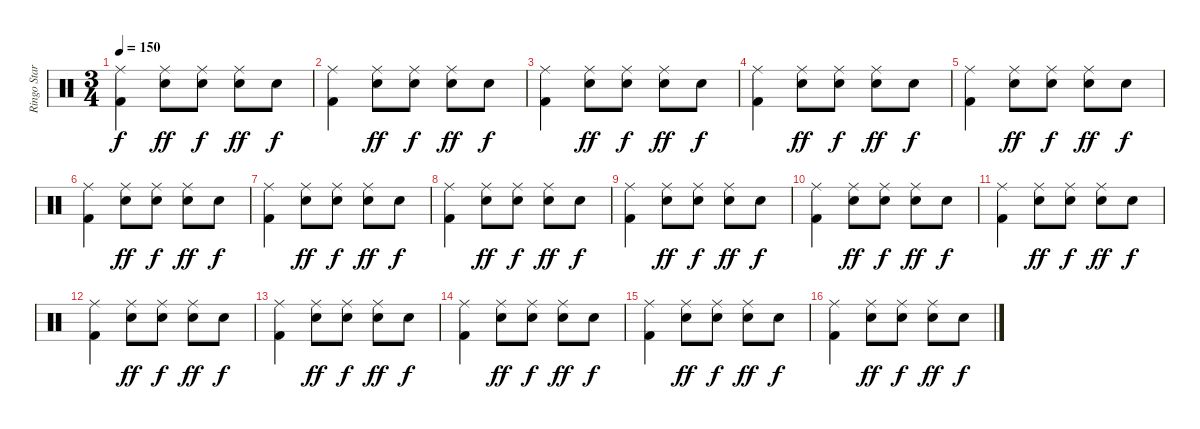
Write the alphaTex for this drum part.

\track ("Ringo Starr (Batterie)" "Ringo Star") {instrument percussion}
\staff {score}
\articulation defaults
\ts (3 4)
\tempo 150
\clef neutral
\ks c
("Ride (middle)" "Kick (hit) 2").4{dy f} ("Ride (middle)" "Snare (hit) 2").8{dy ff} ("Ride (middle)" "Snare (hit) 2").8{dy f} ("Ride (middle)" "Snare (hit) 2").8{dy ff} "Snare (hit) 2".8{dy f} |
("Ride (middle)" "Kick (hit) 2").4 ("Ride (middle)" "Snare (hit) 2").8{dy ff} ("Ride (middle)" "Snare (hit) 2").8{dy f} ("Ride (middle)" "Snare (hit) 2").8{dy ff} "Snare (hit) 2".8{dy f} |
("Ride (middle)" "Kick (hit) 2").4 ("Ride (middle)" "Snare (hit) 2").8{dy ff} ("Ride (middle)" "Snare (hit) 2").8{dy f} ("Ride (middle)" "Snare (hit) 2").8{dy ff} "Snare (hit) 2".8{dy f} |
("Ride (middle)" "Kick (hit) 2").4 ("Ride (middle)" "Snare (hit) 2").8{dy ff} ("Ride (middle)" "Snare (hit) 2").8{dy f} ("Ride (middle)" "Snare (hit) 2").8{dy ff} "Snare (hit) 2".8{dy f} |
("Ride (middle)" "Kick (hit) 2").4 ("Ride (middle)" "Snare (hit) 2").8{dy ff} ("Ride (middle)" "Snare (hit) 2").8{dy f} ("Ride (middle)" "Snare (hit) 2").8{dy ff} "Snare (hit) 2".8{dy f} |
("Ride (middle)" "Kick (hit) 2").4 ("Ride (middle)" "Snare (hit) 2").8{dy ff} ("Ride (middle)" "Snare (hit) 2").8{dy f} ("Ride (middle)" "Snare (hit) 2").8{dy ff} "Snare (hit) 2".8{dy f} |
("Ride (middle)" "Kick (hit) 2").4 ("Ride (middle)" "Snare (hit) 2").8{dy ff} ("Ride (middle)" "Snare (hit) 2").8{dy f} ("Ride (middle)" "Snare (hit) 2").8{dy ff} "Snare (hit) 2".8{dy f} |
("Ride (middle)" "Kick (hit) 2").4 ("Ride (middle)" "Snare (hit) 2").8{dy ff} ("Ride (middle)" "Snare (hit) 2").8{dy f} ("Ride (middle)" "Snare (hit) 2").8{dy ff} "Snare (hit) 2".8{dy f} |
("Ride (middle)" "Kick (hit) 2").4 ("Ride (middle)" "Snare (hit) 2").8{dy ff} ("Ride (middle)" "Snare (hit) 2").8{dy f} ("Ride (middle)" "Snare (hit) 2").8{dy ff} "Snare (hit) 2".8{dy f} |
("Ride (middle)" "Kick (hit) 2").4 ("Ride (middle)" "Snare (hit) 2").8{dy ff} ("Ride (middle)" "Snare (hit) 2").8{dy f} ("Ride (middle)" "Snare (hit) 2").8{dy ff} "Snare (hit) 2".8{dy f} |
("Ride (middle)" "Kick (hit) 2").4 ("Ride (middle)" "Snare (hit) 2").8{dy ff} ("Ride (middle)" "Snare (hit) 2").8{dy f} ("Ride (middle)" "Snare (hit) 2").8{dy ff} "Snare (hit) 2".8{dy f} |
("Ride (middle)" "Kick (hit) 2").4 ("Ride (middle)" "Snare (hit) 2").8{dy ff} ("Ride (middle)" "Snare (hit) 2").8{dy f} ("Ride (middle)" "Snare (hit) 2").8{dy ff} "Snare (hit) 2".8{dy f} |
("Ride (middle)" "Kick (hit) 2").4 ("Ride (middle)" "Snare (hit) 2").8{dy ff} ("Ride (middle)" "Snare (hit) 2").8{dy f} ("Ride (middle)" "Snare (hit) 2").8{dy ff} "Snare (hit) 2".8{dy f} |
("Ride (middle)" "Kick (hit) 2").4 ("Ride (middle)" "Snare (hit) 2").8{dy ff} ("Ride (middle)" "Snare (hit) 2").8{dy f} ("Ride (middle)" "Snare (hit) 2").8{dy ff} "Snare (hit) 2".8{dy f} |
("Ride (middle)" "Kick (hit) 2").4 ("Ride (middle)" "Snare (hit) 2").8{dy ff} ("Ride (middle)" "Snare (hit) 2").8{dy f} ("Ride (middle)" "Snare (hit) 2").8{dy ff} "Snare (hit) 2".8{dy f} |
("Ride (middle)" "Kick (hit) 2").4 ("Ride (middle)" "Snare (hit) 2").8{dy ff} ("Ride (middle)" "Snare (hit) 2").8{dy f} ("Ride (middle)" "Snare (hit) 2").8{dy ff} "Snare (hit) 2".8{dy f}
